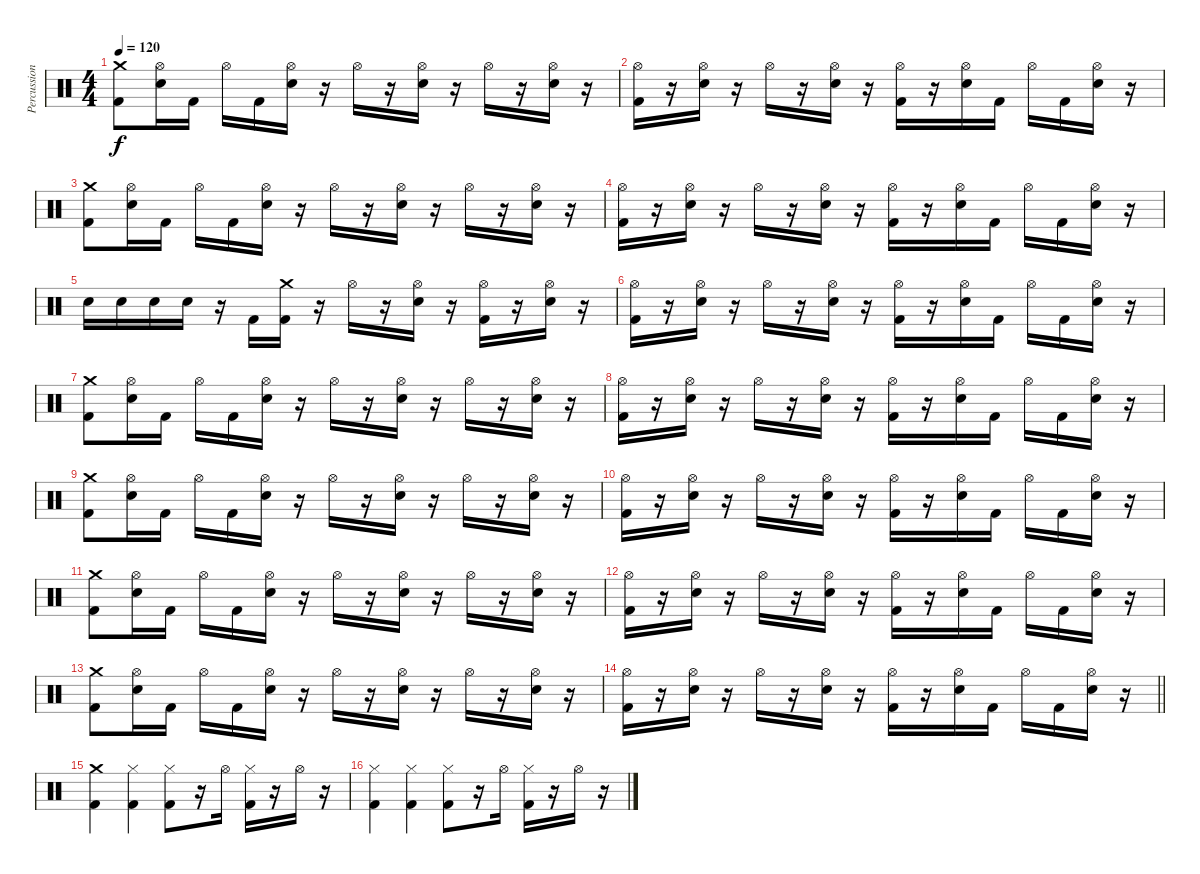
\track ("Percussion" "Percussion") {instrument percussion}
\staff {score}
\articulation defaults
\ts (4 4)
\tempo 120
\clef neutral
\ks c
("Crash medium (hit)" "Kick (hit) 2").8{dy f} ("Hi-Hat (open)" "Electric Snare (hit)").16 "Kick (hit) 2".16 "Hi-Hat (open)".16 "Kick (hit) 2".16 ("Hi-Hat (open)" "Electric Snare (hit)").16 r.16 "Hi-Hat (open)".16 r.16 ("Hi-Hat (open)" "Electric Snare (hit)").16 r.16 "Hi-Hat (open)".16 r.16 ("Hi-Hat (open)" "Electric Snare (hit)").16 r.16 |
("Hi-Hat (open)" "Kick (hit) 2").16 r.16 ("Hi-Hat (open)" "Electric Snare (hit)").16 r.16 "Hi-Hat (open)".16 r.16 ("Hi-Hat (open)" "Electric Snare (hit)").16 r.16 ("Hi-Hat (open)" "Kick (hit) 2").16 r.16 ("Hi-Hat (open)" "Electric Snare (hit)").16 "Kick (hit) 2".16 "Hi-Hat (open)".16 "Kick (hit) 2".16 ("Hi-Hat (open)" "Electric Snare (hit)").16 r.16 |
("Crash medium (hit)" "Kick (hit) 2").8 ("Hi-Hat (open)" "Electric Snare (hit)").16 "Kick (hit) 2".16 "Hi-Hat (open)".16 "Kick (hit) 2".16 ("Hi-Hat (open)" "Electric Snare (hit)").16 r.16 "Hi-Hat (open)".16 r.16 ("Hi-Hat (open)" "Electric Snare (hit)").16 r.16 "Hi-Hat (open)".16 r.16 ("Hi-Hat (open)" "Electric Snare (hit)").16 r.16 |
("Hi-Hat (open)" "Kick (hit) 2").16 r.16 ("Hi-Hat (open)" "Electric Snare (hit)").16 r.16 "Hi-Hat (open)".16 r.16 ("Hi-Hat (open)" "Electric Snare (hit)").16 r.16 ("Hi-Hat (open)" "Kick (hit) 2").16 r.16 ("Hi-Hat (open)" "Electric Snare (hit)").16 "Kick (hit) 2".16 "Hi-Hat (open)".16 "Kick (hit) 2".16 ("Hi-Hat (open)" "Electric Snare (hit)").16 r.16 |
"Electric Snare (hit)".16 "Electric Snare (hit)".16 "Electric Snare (hit)".16 "Electric Snare (hit)".16 r.16 "Kick (hit) 2".16 ("Crash medium (hit)" "Kick (hit) 2").16 r.16 "Hi-Hat (open)".16 r.16 ("Hi-Hat (open)" "Electric Snare (hit)").16 r.16 ("Hi-Hat (open)" "Kick (hit) 2").16 r.16 ("Hi-Hat (open)" "Electric Snare (hit)").16 r.16 |
("Hi-Hat (open)" "Kick (hit) 2").16 r.16 ("Hi-Hat (open)" "Electric Snare (hit)").16 r.16 "Hi-Hat (open)".16 r.16 ("Hi-Hat (open)" "Electric Snare (hit)").16 r.16 ("Hi-Hat (open)" "Kick (hit) 2").16 r.16 ("Hi-Hat (open)" "Electric Snare (hit)").16 "Kick (hit) 2".16 "Hi-Hat (open)".16 "Kick (hit) 2".16 ("Hi-Hat (open)" "Electric Snare (hit)").16 r.16 |
("Crash medium (hit)" "Kick (hit) 2").8 ("Hi-Hat (open)" "Electric Snare (hit)").16 "Kick (hit) 2".16 "Hi-Hat (open)".16 "Kick (hit) 2".16 ("Hi-Hat (open)" "Electric Snare (hit)").16 r.16 "Hi-Hat (open)".16 r.16 ("Hi-Hat (open)" "Electric Snare (hit)").16 r.16 "Hi-Hat (open)".16 r.16 ("Hi-Hat (open)" "Electric Snare (hit)").16 r.16 |
("Hi-Hat (open)" "Kick (hit) 2").16 r.16 ("Hi-Hat (open)" "Electric Snare (hit)").16 r.16 "Hi-Hat (open)".16 r.16 ("Hi-Hat (open)" "Electric Snare (hit)").16 r.16 ("Hi-Hat (open)" "Kick (hit) 2").16 r.16 ("Hi-Hat (open)" "Electric Snare (hit)").16 "Kick (hit) 2".16 "Hi-Hat (open)".16 "Kick (hit) 2".16 ("Hi-Hat (open)" "Electric Snare (hit)").16 r.16 |
("Crash medium (hit)" "Kick (hit) 2").8 ("Hi-Hat (open)" "Electric Snare (hit)").16 "Kick (hit) 2".16 "Hi-Hat (open)".16 "Kick (hit) 2".16 ("Hi-Hat (open)" "Electric Snare (hit)").16 r.16 "Hi-Hat (open)".16 r.16 ("Hi-Hat (open)" "Electric Snare (hit)").16 r.16 "Hi-Hat (open)".16 r.16 ("Hi-Hat (open)" "Electric Snare (hit)").16 r.16 |
("Hi-Hat (open)" "Kick (hit) 2").16 r.16 ("Hi-Hat (open)" "Electric Snare (hit)").16 r.16 "Hi-Hat (open)".16 r.16 ("Hi-Hat (open)" "Electric Snare (hit)").16 r.16 ("Hi-Hat (open)" "Kick (hit) 2").16 r.16 ("Hi-Hat (open)" "Electric Snare (hit)").16 "Kick (hit) 2".16 "Hi-Hat (open)".16 "Kick (hit) 2".16 ("Hi-Hat (open)" "Electric Snare (hit)").16 r.16 |
("Crash medium (hit)" "Kick (hit) 2").8 ("Hi-Hat (open)" "Electric Snare (hit)").16 "Kick (hit) 2".16 "Hi-Hat (open)".16 "Kick (hit) 2".16 ("Hi-Hat (open)" "Electric Snare (hit)").16 r.16 "Hi-Hat (open)".16 r.16 ("Hi-Hat (open)" "Electric Snare (hit)").16 r.16 "Hi-Hat (open)".16 r.16 ("Hi-Hat (open)" "Electric Snare (hit)").16 r.16 |
("Hi-Hat (open)" "Kick (hit) 2").16 r.16 ("Hi-Hat (open)" "Electric Snare (hit)").16 r.16 "Hi-Hat (open)".16 r.16 ("Hi-Hat (open)" "Electric Snare (hit)").16 r.16 ("Hi-Hat (open)" "Kick (hit) 2").16 r.16 ("Hi-Hat (open)" "Electric Snare (hit)").16 "Kick (hit) 2".16 "Hi-Hat (open)".16 "Kick (hit) 2".16 ("Hi-Hat (open)" "Electric Snare (hit)").16 r.16 |
("Crash medium (hit)" "Kick (hit) 2").8 ("Hi-Hat (open)" "Electric Snare (hit)").16 "Kick (hit) 2".16 "Hi-Hat (open)".16 "Kick (hit) 2".16 ("Hi-Hat (open)" "Electric Snare (hit)").16 r.16 "Hi-Hat (open)".16 r.16 ("Hi-Hat (open)" "Electric Snare (hit)").16 r.16 "Hi-Hat (open)".16 r.16 ("Hi-Hat (open)" "Electric Snare (hit)").16 r.16 |
\barLineRight lightlight
("Hi-Hat (open)" "Kick (hit) 2").16 r.16 ("Hi-Hat (open)" "Electric Snare (hit)").16 r.16 "Hi-Hat (open)".16 r.16 ("Hi-Hat (open)" "Electric Snare (hit)").16 r.16 ("Hi-Hat (open)" "Kick (hit) 2").16 r.16 ("Hi-Hat (open)" "Electric Snare (hit)").16 "Kick (hit) 2".16 "Hi-Hat (open)".16 "Kick (hit) 2".16 ("Hi-Hat (open)" "Electric Snare (hit)").16 r.16 |
("Crash medium (hit)" "Kick (hit) 2").4 ("Hi-Hat (closed)" "Kick (hit) 2").4 ("Hi-Hat (closed)" "Kick (hit) 2").8 r.16 "Hi-Hat (open)".16 ("Hi-Hat (closed)" "Kick (hit) 2").16 r.16 "Hi-Hat (open)".16 r.16 |
("Hi-Hat (closed)" "Kick (hit) 2").4 ("Hi-Hat (closed)" "Kick (hit) 2").4 ("Hi-Hat (closed)" "Kick (hit) 2").8 r.16 "Hi-Hat (open)".16 ("Hi-Hat (closed)" "Kick (hit) 2").16 r.16 "Hi-Hat (open)".16 r.16
